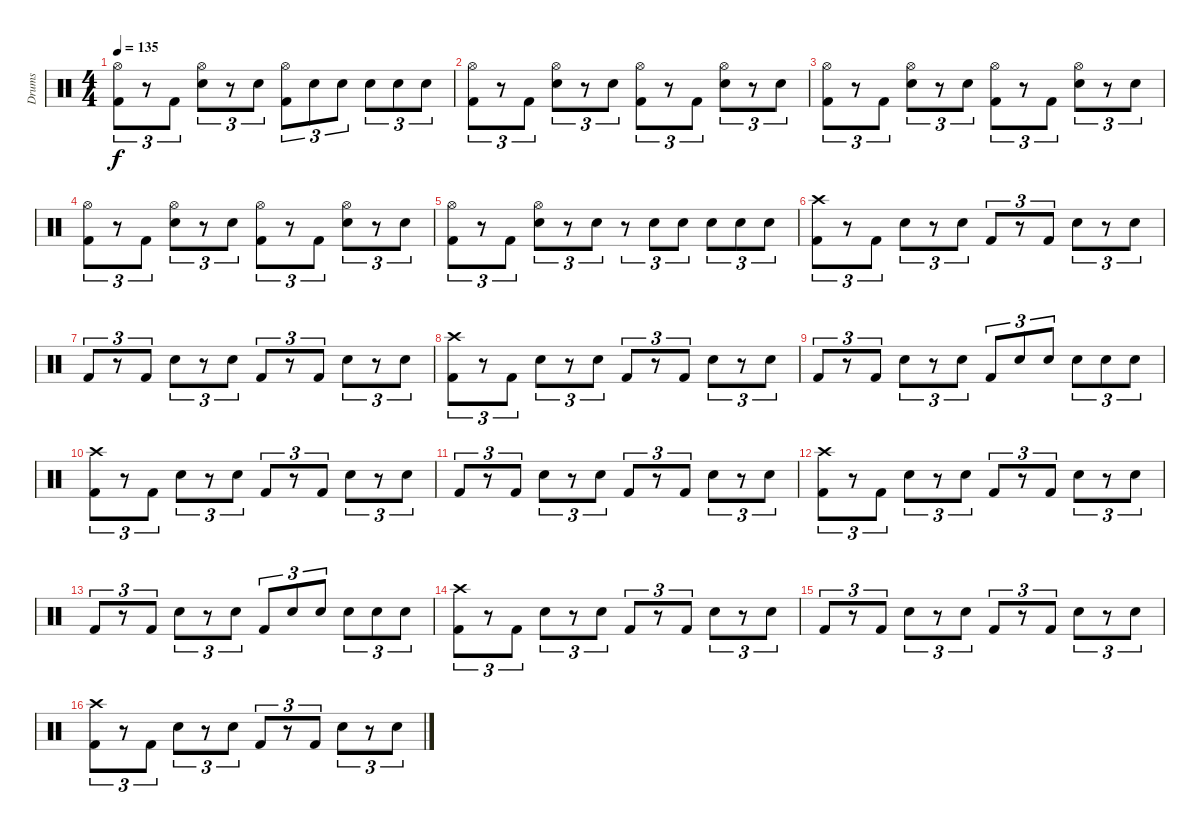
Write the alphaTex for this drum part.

\track ("Drums" "Drums") {instrument percussion}
\staff {score}
\articulation defaults
\ts (4 4)
\tempo 135
\clef neutral
\ks c
("Kick (hit) 2" "Hi-Hat (open)").8{tu (3 2) dy f} r.8{tu (3 2)} "Kick (hit) 2".8{tu (3 2)} ("Snare (hit) 2" "Hi-Hat (open)").8{tu (3 2)} r.8{tu (3 2)} "Snare (hit) 2".8{tu (3 2)} ("Kick (hit) 2" "Hi-Hat (open)").8{tu (3 2)} "Snare (hit) 2".8{tu (3 2)} "Snare (hit) 2".8{tu (3 2)} "Snare (hit) 2".8{tu (3 2)} "Snare (hit) 2".8{tu (3 2)} "Snare (hit) 2".8{tu (3 2)} |
("Kick (hit) 2" "Hi-Hat (open)").8{tu (3 2)} r.8{tu (3 2)} "Kick (hit) 2".8{tu (3 2)} ("Snare (hit) 2" "Hi-Hat (open)").8{tu (3 2)} r.8{tu (3 2)} "Snare (hit) 2".8{tu (3 2)} ("Kick (hit) 2" "Hi-Hat (open)").8{tu (3 2)} r.8{tu (3 2)} "Kick (hit) 2".8{tu (3 2)} ("Snare (hit) 2" "Hi-Hat (open)").8{tu (3 2)} r.8{tu (3 2)} "Snare (hit) 2".8{tu (3 2)} |
("Kick (hit) 2" "Hi-Hat (open)").8{tu (3 2)} r.8{tu (3 2)} "Kick (hit) 2".8{tu (3 2)} ("Snare (hit) 2" "Hi-Hat (open)").8{tu (3 2)} r.8{tu (3 2)} "Snare (hit) 2".8{tu (3 2)} ("Kick (hit) 2" "Hi-Hat (open)").8{tu (3 2)} r.8{tu (3 2)} "Kick (hit) 2".8{tu (3 2)} ("Snare (hit) 2" "Hi-Hat (open)").8{tu (3 2)} r.8{tu (3 2)} "Snare (hit) 2".8{tu (3 2)} |
("Kick (hit) 2" "Hi-Hat (open)").8{tu (3 2)} r.8{tu (3 2)} "Kick (hit) 2".8{tu (3 2)} ("Snare (hit) 2" "Hi-Hat (open)").8{tu (3 2)} r.8{tu (3 2)} "Snare (hit) 2".8{tu (3 2)} ("Kick (hit) 2" "Hi-Hat (open)").8{tu (3 2)} r.8{tu (3 2)} "Kick (hit) 2".8{tu (3 2)} ("Snare (hit) 2" "Hi-Hat (open)").8{tu (3 2)} r.8{tu (3 2)} "Snare (hit) 2".8{tu (3 2)} |
("Kick (hit) 2" "Hi-Hat (open)").8{tu (3 2)} r.8{tu (3 2)} "Kick (hit) 2".8{tu (3 2)} ("Snare (hit) 2" "Hi-Hat (open)").8{tu (3 2)} r.8{tu (3 2)} "Snare (hit) 2".8{tu (3 2)} r.8{tu (3 2)} "Snare (hit) 2".8{tu (3 2)} "Snare (hit) 2".8{tu (3 2)} "Snare (hit) 2".8{tu (3 2)} "Snare (hit) 2".8{tu (3 2)} "Snare (hit) 2".8{tu (3 2)} |
("Kick (hit) 2" "Crash high (hit)").8{tu (3 2)} r.8{tu (3 2)} "Kick (hit) 2".8{tu (3 2)} "Snare (hit) 2".8{tu (3 2)} r.8{tu (3 2)} "Snare (hit) 2".8{tu (3 2)} "Kick (hit) 2".8{tu (3 2)} r.8{tu (3 2)} "Kick (hit) 2".8{tu (3 2)} "Snare (hit) 2".8{tu (3 2)} r.8{tu (3 2)} "Snare (hit) 2".8{tu (3 2)} |
"Kick (hit) 2".8{tu (3 2)} r.8{tu (3 2)} "Kick (hit) 2".8{tu (3 2)} "Snare (hit) 2".8{tu (3 2)} r.8{tu (3 2)} "Snare (hit) 2".8{tu (3 2)} "Kick (hit) 2".8{tu (3 2)} r.8{tu (3 2)} "Kick (hit) 2".8{tu (3 2)} "Snare (hit) 2".8{tu (3 2)} r.8{tu (3 2)} "Snare (hit) 2".8{tu (3 2)} |
("Kick (hit) 2" "Crash high (hit)").8{tu (3 2)} r.8{tu (3 2)} "Kick (hit) 2".8{tu (3 2)} "Snare (hit) 2".8{tu (3 2)} r.8{tu (3 2)} "Snare (hit) 2".8{tu (3 2)} "Kick (hit) 2".8{tu (3 2)} r.8{tu (3 2)} "Kick (hit) 2".8{tu (3 2)} "Snare (hit) 2".8{tu (3 2)} r.8{tu (3 2)} "Snare (hit) 2".8{tu (3 2)} |
"Kick (hit) 2".8{tu (3 2)} r.8{tu (3 2)} "Kick (hit) 2".8{tu (3 2)} "Snare (hit) 2".8{tu (3 2)} r.8{tu (3 2)} "Snare (hit) 2".8{tu (3 2)} "Kick (hit) 2".8{tu (3 2)} "Snare (hit) 2".8{tu (3 2)} "Snare (hit) 2".8{tu (3 2)} "Snare (hit) 2".8{tu (3 2)} "Snare (hit) 2".8{tu (3 2)} "Snare (hit) 2".8{tu (3 2)} |
("Kick (hit) 2" "Crash high (hit)").8{tu (3 2)} r.8{tu (3 2)} "Kick (hit) 2".8{tu (3 2)} "Snare (hit) 2".8{tu (3 2)} r.8{tu (3 2)} "Snare (hit) 2".8{tu (3 2)} "Kick (hit) 2".8{tu (3 2)} r.8{tu (3 2)} "Kick (hit) 2".8{tu (3 2)} "Snare (hit) 2".8{tu (3 2)} r.8{tu (3 2)} "Snare (hit) 2".8{tu (3 2)} |
"Kick (hit) 2".8{tu (3 2)} r.8{tu (3 2)} "Kick (hit) 2".8{tu (3 2)} "Snare (hit) 2".8{tu (3 2)} r.8{tu (3 2)} "Snare (hit) 2".8{tu (3 2)} "Kick (hit) 2".8{tu (3 2)} r.8{tu (3 2)} "Kick (hit) 2".8{tu (3 2)} "Snare (hit) 2".8{tu (3 2)} r.8{tu (3 2)} "Snare (hit) 2".8{tu (3 2)} |
("Kick (hit) 2" "Crash high (hit)").8{tu (3 2)} r.8{tu (3 2)} "Kick (hit) 2".8{tu (3 2)} "Snare (hit) 2".8{tu (3 2)} r.8{tu (3 2)} "Snare (hit) 2".8{tu (3 2)} "Kick (hit) 2".8{tu (3 2)} r.8{tu (3 2)} "Kick (hit) 2".8{tu (3 2)} "Snare (hit) 2".8{tu (3 2)} r.8{tu (3 2)} "Snare (hit) 2".8{tu (3 2)} |
"Kick (hit) 2".8{tu (3 2)} r.8{tu (3 2)} "Kick (hit) 2".8{tu (3 2)} "Snare (hit) 2".8{tu (3 2)} r.8{tu (3 2)} "Snare (hit) 2".8{tu (3 2)} "Kick (hit) 2".8{tu (3 2)} "Snare (hit) 2".8{tu (3 2)} "Snare (hit) 2".8{tu (3 2)} "Snare (hit) 2".8{tu (3 2)} "Snare (hit) 2".8{tu (3 2)} "Snare (hit) 2".8{tu (3 2)} |
("Kick (hit) 2" "Crash high (hit)").8{tu (3 2)} r.8{tu (3 2)} "Kick (hit) 2".8{tu (3 2)} "Snare (hit) 2".8{tu (3 2)} r.8{tu (3 2)} "Snare (hit) 2".8{tu (3 2)} "Kick (hit) 2".8{tu (3 2)} r.8{tu (3 2)} "Kick (hit) 2".8{tu (3 2)} "Snare (hit) 2".8{tu (3 2)} r.8{tu (3 2)} "Snare (hit) 2".8{tu (3 2)} |
"Kick (hit) 2".8{tu (3 2)} r.8{tu (3 2)} "Kick (hit) 2".8{tu (3 2)} "Snare (hit) 2".8{tu (3 2)} r.8{tu (3 2)} "Snare (hit) 2".8{tu (3 2)} "Kick (hit) 2".8{tu (3 2)} r.8{tu (3 2)} "Kick (hit) 2".8{tu (3 2)} "Snare (hit) 2".8{tu (3 2)} r.8{tu (3 2)} "Snare (hit) 2".8{tu (3 2)} |
("Kick (hit) 2" "Crash high (hit)").8{tu (3 2)} r.8{tu (3 2)} "Kick (hit) 2".8{tu (3 2)} "Snare (hit) 2".8{tu (3 2)} r.8{tu (3 2)} "Snare (hit) 2".8{tu (3 2)} "Kick (hit) 2".8{tu (3 2)} r.8{tu (3 2)} "Kick (hit) 2".8{tu (3 2)} "Snare (hit) 2".8{tu (3 2)} r.8{tu (3 2)} "Snare (hit) 2".8{tu (3 2)}
